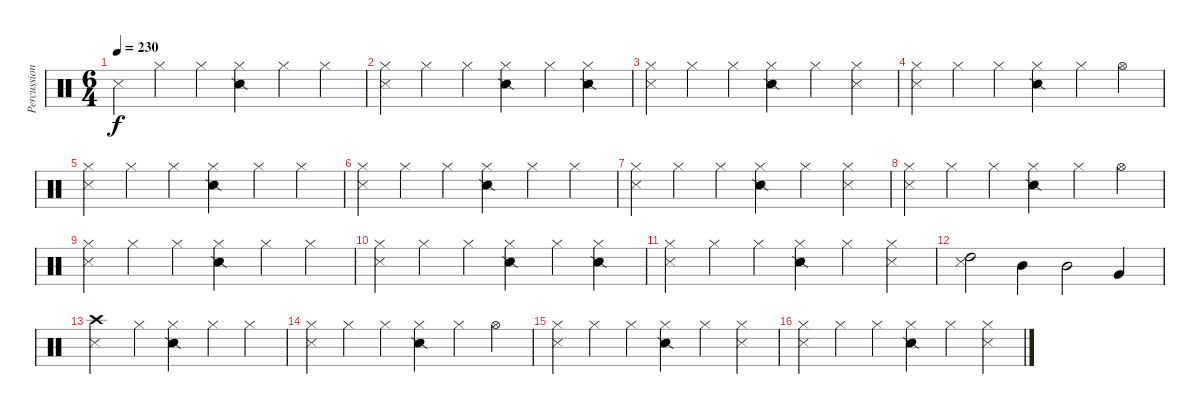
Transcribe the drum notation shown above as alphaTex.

\track ("Percussions" "Percussion") {instrument percussion}
\staff {score}
\articulation defaults
\ts (6 4)
\tempo 230
\clef neutral
\ks c "Metronome (hit)".4{dy f} "Hi-Hat (closed)".4 "Hi-Hat (closed)".4
("Hi-Hat (closed)" "Snare (side stick) 2").4 "Hi-Hat (closed)".4 "Hi-Hat (closed)".4 |
("Hi-Hat (closed)" "Metronome (hit)").4 "Hi-Hat (closed)".4 "Hi-Hat (closed)".4 ("Hi-Hat (closed)" "Snare (side stick) 2").4 "Hi-Hat (closed)".4 ("Hi-Hat (closed)" "Snare (side stick) 2").4 |
("Hi-Hat (closed)" "Metronome (hit)").4 "Hi-Hat (closed)".4 "Hi-Hat (closed)".4 ("Hi-Hat (closed)" "Snare (side stick) 2").4 "Hi-Hat (closed)".4 ("Hi-Hat (closed)" "Metronome (hit)").4 |
("Hi-Hat (closed)" "Metronome (hit)").4 "Hi-Hat (closed)".4 "Hi-Hat (closed)".4 ("Hi-Hat (closed)" "Snare (side stick) 2").4 "Hi-Hat (closed)".4 "Hi-Hat (open)".4 |
("Hi-Hat (closed)" "Metronome (hit)").4 "Hi-Hat (closed)".4 "Hi-Hat (closed)".4 ("Hi-Hat (closed)" "Snare (side stick) 2").4 "Hi-Hat (closed)".4 "Hi-Hat (closed)".4 |
("Hi-Hat (closed)" "Metronome (hit)").4 "Hi-Hat (closed)".4 "Hi-Hat (closed)".4 ("Hi-Hat (closed)" "Snare (side stick) 2").4 "Hi-Hat (closed)".4 "Hi-Hat (closed)".4 |
("Hi-Hat (closed)" "Metronome (hit)").4 "Hi-Hat (closed)".4 "Hi-Hat (closed)".4 ("Hi-Hat (closed)" "Snare (side stick) 2").4 "Hi-Hat (closed)".4 ("Hi-Hat (closed)" "Metronome (hit)").4 |
("Hi-Hat (closed)" "Metronome (hit)").4 "Hi-Hat (closed)".4 "Hi-Hat (closed)".4 ("Hi-Hat (closed)" "Snare (side stick) 2").4 "Hi-Hat (closed)".4 "Hi-Hat (open)".4 |
("Hi-Hat (closed)" "Metronome (hit)").4 "Hi-Hat (closed)".4 "Hi-Hat (closed)".4 ("Hi-Hat (closed)" "Snare (side stick) 2").4 "Hi-Hat (closed)".4 "Hi-Hat (closed)".4 |
("Hi-Hat (closed)" "Metronome (hit)").4 "Hi-Hat (closed)".4 "Hi-Hat (closed)".4 ("Hi-Hat (closed)" "Snare (side stick) 2").4 "Hi-Hat (closed)".4 ("Hi-Hat (closed)" "Snare (side stick) 2").4 |
("Hi-Hat (closed)" "Metronome (hit)").4 "Hi-Hat (closed)".4 "Hi-Hat (closed)".4 ("Hi-Hat (closed)" "Snare (side stick) 2").4 "Hi-Hat (closed)".4 ("Hi-Hat (closed)" "Metronome (hit)").4 |
("Metronome (hit)" "High Tom (hit)").2 "Mid Tom (hit)".4 "Mid Tom (hit)".2 "Very Low Tom (hit)".4 |
("Metronome (hit)" "Crash high (hit)").2 "Hi-Hat (closed)".4 ("Hi-Hat (closed)" "Snare (side stick) 2").4 "Hi-Hat (closed)".4 "Hi-Hat (closed)".4 |
("Hi-Hat (closed)" "Metronome (hit)").4 "Hi-Hat (closed)".4 "Hi-Hat (closed)".4 ("Hi-Hat (closed)" "Snare (side stick) 2").4 "Hi-Hat (closed)".4 "Hi-Hat (open)".4 |
("Hi-Hat (closed)" "Metronome (hit)").4 "Hi-Hat (closed)".4 "Hi-Hat (closed)".4 ("Hi-Hat (closed)" "Snare (side stick) 2").4 "Hi-Hat (closed)".4 ("Hi-Hat (closed)" "Metronome (hit)").4 |
("Hi-Hat (closed)" "Metronome (hit)").4 "Hi-Hat (closed)".4 "Hi-Hat (closed)".4 ("Hi-Hat (closed)" "Snare (side stick) 2").4 "Hi-Hat (closed)".4 ("Hi-Hat (closed)" "Metronome (hit)").4
